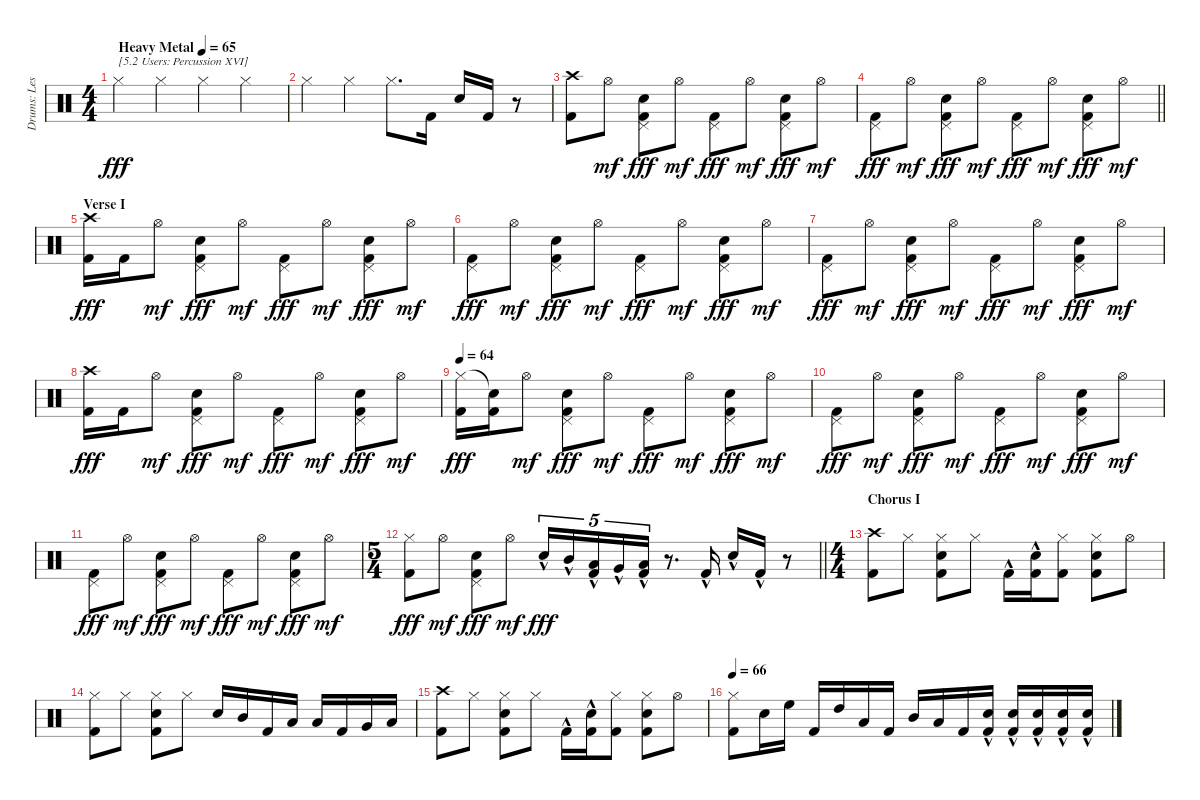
\track ("Drums: Les" "Drums: Les") {instrument percussion}
\staff {score}
\articulation defaults
\ts (4 4)
\tempo (65 "Heavy Metal")
\clef neutral
\ks c "Hi-Hat (closed)".4{txt "[5.2 Users: Percussion XVI]" dy fff} "Hi-Hat (closed)".4 "Hi-Hat (closed)".4 "Hi-Hat (closed)".4
|
"Hi-Hat (closed)".4 "Hi-Hat (closed)".4 "Hi-Hat (closed)".8{d} "Kick (hit) 2".16 "Snare (hit) 2".16 "Kick (hit) 2".16 r.8 |
("Crash high (hit)" "Kick (hit) 2").8 "Hi-Hat (open)".8{dy mf} ("Pedal Hi-Hat (hit)" "Snare (hit) 2" "Kick (hit) 2").8{dy fff} "Hi-Hat (open)".8{dy mf} ("Pedal Hi-Hat (hit)" "Kick (hit) 2").8{dy fff} "Hi-Hat (open)".8{dy mf} ("Pedal Hi-Hat (hit)" "Snare (hit) 2" "Kick (hit) 2").8{dy fff} "Hi-Hat (open)".8{dy mf} |
\barLineRight lightlight
("Pedal Hi-Hat (hit)" "Kick (hit) 2").8{dy fff} "Hi-Hat (open)".8{dy mf} ("Pedal Hi-Hat (hit)" "Snare (hit) 2" "Kick (hit) 2").8{dy fff} "Hi-Hat (open)".8{dy mf} ("Pedal Hi-Hat (hit)" "Kick (hit) 2").8{dy fff} "Hi-Hat (open)".8{dy mf} ("Pedal Hi-Hat (hit)" "Snare (hit) 2" "Kick (hit) 2").8{dy fff} "Hi-Hat (open)".8{dy mf} |
\section ("" "Verse I")
("Crash high (hit)" "Kick (hit) 2").16{dy fff} "Kick (hit) 2".16 "Hi-Hat (open)".8{dy mf} ("Pedal Hi-Hat (hit)" "Snare (hit) 2" "Kick (hit) 2").8{dy fff} "Hi-Hat (open)".8{dy mf} ("Pedal Hi-Hat (hit)" "Kick (hit) 2").8{dy fff} "Hi-Hat (open)".8{dy mf} ("Pedal Hi-Hat (hit)" "Snare (hit) 2" "Kick (hit) 2").8{dy fff} "Hi-Hat (open)".8{dy mf} |
("Pedal Hi-Hat (hit)" "Kick (hit) 2").8{dy fff} "Hi-Hat (open)".8{dy mf} ("Pedal Hi-Hat (hit)" "Snare (hit) 2" "Kick (hit) 2").8{dy fff} "Hi-Hat (open)".8{dy mf} ("Pedal Hi-Hat (hit)" "Kick (hit) 2").8{dy fff} "Hi-Hat (open)".8{dy mf} ("Pedal Hi-Hat (hit)" "Snare (hit) 2" "Kick (hit) 2").8{dy fff} "Hi-Hat (open)".8{dy mf} |
("Pedal Hi-Hat (hit)" "Kick (hit) 2").8{dy fff} "Hi-Hat (open)".8{dy mf} ("Pedal Hi-Hat (hit)" "Snare (hit) 2" "Kick (hit) 2").8{dy fff} "Hi-Hat (open)".8{dy mf} ("Pedal Hi-Hat (hit)" "Kick (hit) 2").8{dy fff} "Hi-Hat (open)".8{dy mf} ("Pedal Hi-Hat (hit)" "Snare (hit) 2" "Kick (hit) 2").8{dy fff} "Hi-Hat (open)".8{dy mf} |
("Crash high (hit)" "Kick (hit) 2").16{dy fff} "Kick (hit) 2".16 "Hi-Hat (open)".8{dy mf} ("Pedal Hi-Hat (hit)" "Snare (hit) 2" "Kick (hit) 2").8{dy fff} "Hi-Hat (open)".8{dy mf} ("Pedal Hi-Hat (hit)" "Kick (hit) 2").8{dy fff} "Hi-Hat (open)".8{dy mf} ("Pedal Hi-Hat (hit)" "Snare (hit) 2" "Kick (hit) 2").8{dy fff} "Hi-Hat (open)".8{dy mf} |
\tempo 64
("Hi-Hat (closed)" "Kick (hit) 2").16{dy fff} ("Snare (hit)"{t} "Kick (hit) 2").16 "Hi-Hat (open)".8{dy mf} ("Pedal Hi-Hat (hit)" "Snare (hit) 2" "Kick (hit) 2").8{dy fff} "Hi-Hat (open)".8{dy mf} ("Pedal Hi-Hat (hit)" "Kick (hit) 2").8{dy fff} "Hi-Hat (open)".8{dy mf} ("Pedal Hi-Hat (hit)" "Snare (hit) 2" "Kick (hit) 2").8{dy fff} "Hi-Hat (open)".8{dy mf} |
("Pedal Hi-Hat (hit)" "Kick (hit) 2").8{dy fff} "Hi-Hat (open)".8{dy mf} ("Pedal Hi-Hat (hit)" "Snare (hit) 2" "Kick (hit) 2").8{dy fff} "Hi-Hat (open)".8{dy mf} ("Pedal Hi-Hat (hit)" "Kick (hit) 2").8{dy fff} "Hi-Hat (open)".8{dy mf} ("Pedal Hi-Hat (hit)" "Snare (hit) 2" "Kick (hit) 2").8{dy fff} "Hi-Hat (open)".8{dy mf} |
("Pedal Hi-Hat (hit)" "Kick (hit) 2").8{dy fff} "Hi-Hat (open)".8{dy mf} ("Pedal Hi-Hat (hit)" "Snare (hit) 2" "Kick (hit) 2").8{dy fff} "Hi-Hat (open)".8{dy mf} ("Pedal Hi-Hat (hit)" "Kick (hit) 2").8{dy fff} "Hi-Hat (open)".8{dy mf} ("Pedal Hi-Hat (hit)" "Snare (hit) 2" "Kick (hit) 2").8{dy fff} "Hi-Hat (open)".8{dy mf} |
\ts (5 4)
\barLineRight lightlight
("Hi-Hat (closed)" "Kick (hit) 2").8{dy fff} "Hi-Hat (open)".8{dy mf} ("Pedal Hi-Hat (hit)" "Snare (hit) 2" "Kick (hit) 2").8{dy fff} "Hi-Hat (open)".8{dy mf} "Snare (hit) 2"{hac}.16{tu (5 4) dy fff} "Mid Tom (hit)"{hac}.16{tu (5 4)} ("Low Tom (hit)"{hac} "Kick (hit) 2"{hac}).16{tu (5 4)} "Very Low Tom (hit)"{hac}.16{tu (5 4)} ("Low Floor Tom (hit)"{hac} "Kick (hit) 2"{hac}).16{tu (5 4)} r.8{d} "Kick (hit) 2"{hac}.16 "Snare (hit) 2"{hac}.16 "Kick (hit) 2"{hac}.16 r.8 |
\ts (4 4)
\section ("" "Chorus I")
("Crash high (hit)" "Kick (hit) 2").8 "Hi-Hat (closed)".8 ("Hi-Hat (closed)" "Snare (hit) 2" "Kick (hit) 2").8 "Hi-Hat (closed)".8 "Kick (hit) 2"{hac}.16 ("Snare (hit) 2"{hac} "Kick (hit) 2").16 ("Hi-Hat (closed)" "Kick (hit) 2").8 ("Hi-Hat (closed)" "Snare (hit) 2" "Kick (hit) 2").8 "Hi-Hat (open)".8 |
("Hi-Hat (closed)" "Kick (hit) 2").8 "Hi-Hat (closed)".8 ("Hi-Hat (closed)" "Snare (hit) 2" "Kick (hit) 2").8 "Hi-Hat (closed)".8 "Snare (hit) 2".16 "Mid Tom (hit)".16 "Kick (hit) 2".16 "Low Tom (hit)".16 "Low Floor Tom (hit)".16 "Kick (hit) 2".16 "Very Low Tom (hit)".16 "Low Floor Tom (hit)".16 |
("Crash high (hit)" "Kick (hit) 2").8 "Hi-Hat (closed)".8 ("Hi-Hat (closed)" "Snare (hit) 2" "Kick (hit) 2").8 "Hi-Hat (closed)".8 "Kick (hit) 2"{hac}.16 ("Snare (hit) 2"{hac} "Kick (hit) 2").16 ("Hi-Hat (closed)" "Kick (hit) 2").8 ("Hi-Hat (closed)" "Snare (hit) 2" "Kick (hit) 2").8 "Hi-Hat (open)".8 |
\tempo 66
("Hi-Hat (closed)" "Kick (hit) 2").8 "Snare (hit) 2".16 "High Floor Tom (hit)".16 "Kick (hit) 2".16 "High Tom (hit)".16 "Low Floor Tom (hit)".16 "Kick (hit) 2".16 "Mid Tom (hit)".16 "Low Floor Tom (hit)".16 "Kick (hit) 2".16 ("Snare (hit) 2"{hac} "Kick (hit) 2").16 ("Snare (hit) 2"{hac} "Kick (hit) 2").16 ("Snare (hit) 2"{hac} "Kick (hit) 2").16 ("Snare (hit) 2"{hac} "Kick (hit) 2").16 ("Snare (hit) 2"{hac} "Kick (hit) 2").16
